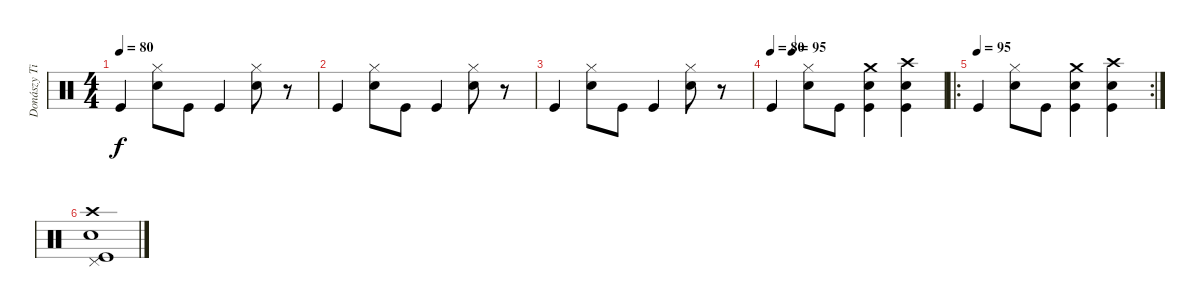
\track ("Donászy Tibor" "Donászy Ti") {instrument percussion}
\staff {score}
\articulation defaults
\ts (4 4)
\tempo 80
\clef neutral
\ks c "Kick (hit)".4{dy f}
("Hi-Hat (closed)" "Snare (hit) 2").8 "Kick (hit)".8 "Kick (hit)".4 ("Hi-Hat (closed)" "Snare (hit) 2").8 r.8 |
"Kick (hit)".4 ("Hi-Hat (closed)" "Snare (hit) 2").8 "Kick (hit)".8 "Kick (hit)".4 ("Hi-Hat (closed)" "Snare (hit) 2").8 r.8 |
"Kick (hit)".4 ("Hi-Hat (closed)" "Snare (hit) 2").8 "Kick (hit)".8 "Kick (hit)".4 ("Hi-Hat (closed)" "Snare (hit) 2").8 r.8 |
\tempo 80
\tempo (95 0.125)
"Kick (hit)".4 ("Hi-Hat (closed)" "Snare (hit) 2").8 "Kick (hit)".8 ("Kick (hit)" "Snare (hit) 2" "Crash medium (hit)").4 ("Kick (hit)" "Snare (hit) 2" "Crash high (hit)").4 |
\ro
\rc 2
\tempo (95)
"Kick (hit)".4 ("Hi-Hat (closed)" "Snare (hit) 2").8 "Kick (hit)".8 ("Kick (hit)" "Snare (hit) 2" "Crash medium (hit)").4 ("Kick (hit)" "Snare (hit) 2" "Crash high (hit)").4 |
("Pedal Hi-Hat (hit)" "Kick (hit)" "Snare (hit) 2" "Crash high (hit)").1
